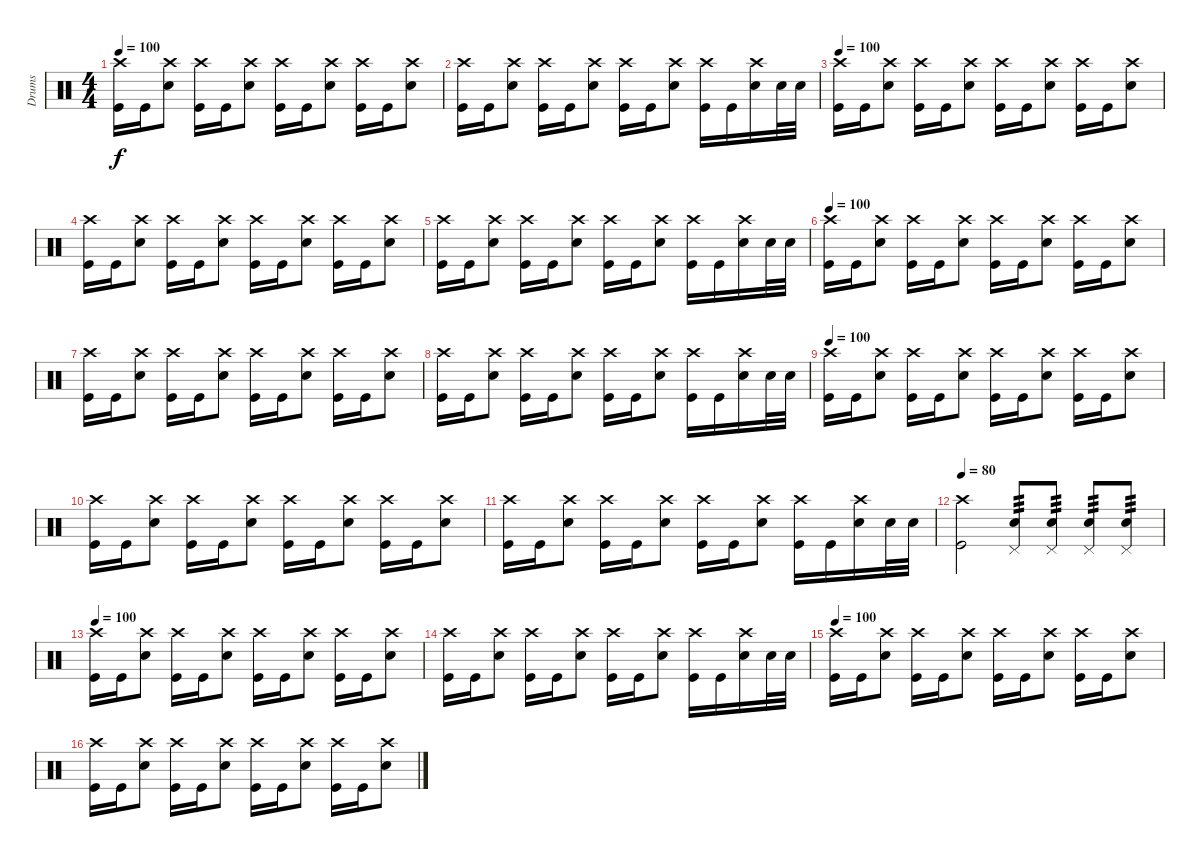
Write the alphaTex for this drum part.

\track ("Drums" "Drums") {instrument percussion}
\staff {score}
\articulation defaults
\ts (4 4)
\tempo 100
\clef neutral
\ks c
("Crash high (hit)" "Kick (hit)").16{dy f} "Kick (hit)".16 ("Crash high (hit)" "Snare (hit) 2").8 ("Crash high (hit)" "Kick (hit)").16 "Kick (hit)".16 ("Crash high (hit)" "Snare (hit) 2").8 ("Crash high (hit)" "Kick (hit)").16 "Kick (hit)".16 ("Crash high (hit)" "Snare (hit) 2").8 ("Crash high (hit)" "Kick (hit)").16 "Kick (hit)".16 ("Crash high (hit)" "Snare (hit) 2").8 |
("Crash high (hit)" "Kick (hit)").16 "Kick (hit)".16 ("Crash high (hit)" "Snare (hit) 2").8 ("Crash high (hit)" "Kick (hit)").16 "Kick (hit)".16 ("Crash high (hit)" "Snare (hit) 2").8 ("Crash high (hit)" "Kick (hit)").16 "Kick (hit)".16 ("Crash high (hit)" "Snare (hit) 2").8 ("Crash high (hit)" "Kick (hit)").16 "Kick (hit)".16 ("Crash high (hit)" "Snare (hit) 2").16 "Snare (hit) 2".32 "Snare (hit) 2".32 |
\tempo 100
("Crash high (hit)" "Kick (hit)").16 "Kick (hit)".16 ("Crash high (hit)" "Snare (hit) 2").8 ("Crash high (hit)" "Kick (hit)").16 "Kick (hit)".16 ("Crash high (hit)" "Snare (hit) 2").8 ("Crash high (hit)" "Kick (hit)").16 "Kick (hit)".16 ("Crash high (hit)" "Snare (hit) 2").8 ("Crash high (hit)" "Kick (hit)").16 "Kick (hit)".16 ("Crash high (hit)" "Snare (hit) 2").8 |
("Crash high (hit)" "Kick (hit)").16 "Kick (hit)".16 ("Crash high (hit)" "Snare (hit) 2").8 ("Crash high (hit)" "Kick (hit)").16 "Kick (hit)".16 ("Crash high (hit)" "Snare (hit) 2").8 ("Crash high (hit)" "Kick (hit)").16 "Kick (hit)".16 ("Crash high (hit)" "Snare (hit) 2").8 ("Crash high (hit)" "Kick (hit)").16 "Kick (hit)".16 ("Crash high (hit)" "Snare (hit) 2").8 |
("Crash high (hit)" "Kick (hit)").16 "Kick (hit)".16 ("Crash high (hit)" "Snare (hit) 2").8 ("Crash high (hit)" "Kick (hit)").16 "Kick (hit)".16 ("Crash high (hit)" "Snare (hit) 2").8 ("Crash high (hit)" "Kick (hit)").16 "Kick (hit)".16 ("Crash high (hit)" "Snare (hit) 2").8 ("Crash high (hit)" "Kick (hit)").16 "Kick (hit)".16 ("Crash high (hit)" "Snare (hit) 2").16 "Snare (hit) 2".32 "Snare (hit) 2".32 |
\tempo 100
("Crash high (hit)" "Kick (hit)").16 "Kick (hit)".16 ("Crash high (hit)" "Snare (hit) 2").8 ("Crash high (hit)" "Kick (hit)").16 "Kick (hit)".16 ("Crash high (hit)" "Snare (hit) 2").8 ("Crash high (hit)" "Kick (hit)").16 "Kick (hit)".16 ("Crash high (hit)" "Snare (hit) 2").8 ("Crash high (hit)" "Kick (hit)").16 "Kick (hit)".16 ("Crash high (hit)" "Snare (hit) 2").8 |
("Crash high (hit)" "Kick (hit)").16 "Kick (hit)".16 ("Crash high (hit)" "Snare (hit) 2").8 ("Crash high (hit)" "Kick (hit)").16 "Kick (hit)".16 ("Crash high (hit)" "Snare (hit) 2").8 ("Crash high (hit)" "Kick (hit)").16 "Kick (hit)".16 ("Crash high (hit)" "Snare (hit) 2").8 ("Crash high (hit)" "Kick (hit)").16 "Kick (hit)".16 ("Crash high (hit)" "Snare (hit) 2").8 |
("Crash high (hit)" "Kick (hit)").16 "Kick (hit)".16 ("Crash high (hit)" "Snare (hit) 2").8 ("Crash high (hit)" "Kick (hit)").16 "Kick (hit)".16 ("Crash high (hit)" "Snare (hit) 2").8 ("Crash high (hit)" "Kick (hit)").16 "Kick (hit)".16 ("Crash high (hit)" "Snare (hit) 2").8 ("Crash high (hit)" "Kick (hit)").16 "Kick (hit)".16 ("Crash high (hit)" "Snare (hit) 2").16 "Snare (hit) 2".32 "Snare (hit) 2".32 |
\tempo 100
("Crash high (hit)" "Kick (hit)").16 "Kick (hit)".16 ("Crash high (hit)" "Snare (hit) 2").8 ("Crash high (hit)" "Kick (hit)").16 "Kick (hit)".16 ("Crash high (hit)" "Snare (hit) 2").8 ("Crash high (hit)" "Kick (hit)").16 "Kick (hit)".16 ("Crash high (hit)" "Snare (hit) 2").8 ("Crash high (hit)" "Kick (hit)").16 "Kick (hit)".16 ("Crash high (hit)" "Snare (hit) 2").8 |
("Crash high (hit)" "Kick (hit)").16 "Kick (hit)".16 ("Crash high (hit)" "Snare (hit) 2").8 ("Crash high (hit)" "Kick (hit)").16 "Kick (hit)".16 ("Crash high (hit)" "Snare (hit) 2").8 ("Crash high (hit)" "Kick (hit)").16 "Kick (hit)".16 ("Crash high (hit)" "Snare (hit) 2").8 ("Crash high (hit)" "Kick (hit)").16 "Kick (hit)".16 ("Crash high (hit)" "Snare (hit) 2").8 |
("Crash high (hit)" "Kick (hit)").16 "Kick (hit)".16 ("Crash high (hit)" "Snare (hit) 2").8 ("Crash high (hit)" "Kick (hit)").16 "Kick (hit)".16 ("Crash high (hit)" "Snare (hit) 2").8 ("Crash high (hit)" "Kick (hit)").16 "Kick (hit)".16 ("Crash high (hit)" "Snare (hit) 2").8 ("Crash high (hit)" "Kick (hit)").16 "Kick (hit)".16 ("Crash high (hit)" "Snare (hit) 2").16 "Snare (hit) 2".32 "Snare (hit) 2".32 |
\tempo 80
("Crash high (hit)" "Kick (hit)").2 ("Pedal Hi-Hat (hit)" "Snare (hit) 2").8{tp 3} ("Pedal Hi-Hat (hit)" "Snare (hit) 2").8{tp 3} ("Pedal Hi-Hat (hit)" "Snare (hit) 2").8{tp 3} ("Pedal Hi-Hat (hit)" "Snare (hit) 2").8{tp 3} |
\tempo 100
("Crash high (hit)" "Kick (hit)").16 "Kick (hit)".16 ("Crash high (hit)" "Snare (hit) 2").8 ("Crash high (hit)" "Kick (hit)").16 "Kick (hit)".16 ("Crash high (hit)" "Snare (hit) 2").8 ("Crash high (hit)" "Kick (hit)").16 "Kick (hit)".16 ("Crash high (hit)" "Snare (hit) 2").8 ("Crash high (hit)" "Kick (hit)").16 "Kick (hit)".16 ("Crash high (hit)" "Snare (hit) 2").8 |
("Crash high (hit)" "Kick (hit)").16 "Kick (hit)".16 ("Crash high (hit)" "Snare (hit) 2").8 ("Crash high (hit)" "Kick (hit)").16 "Kick (hit)".16 ("Crash high (hit)" "Snare (hit) 2").8 ("Crash high (hit)" "Kick (hit)").16 "Kick (hit)".16 ("Crash high (hit)" "Snare (hit) 2").8 ("Crash high (hit)" "Kick (hit)").16 "Kick (hit)".16 ("Crash high (hit)" "Snare (hit) 2").16 "Snare (hit) 2".32 "Snare (hit) 2".32 |
\tempo 100
("Crash high (hit)" "Kick (hit)").16 "Kick (hit)".16 ("Crash high (hit)" "Snare (hit) 2").8 ("Crash high (hit)" "Kick (hit)").16 "Kick (hit)".16 ("Crash high (hit)" "Snare (hit) 2").8 ("Crash high (hit)" "Kick (hit)").16 "Kick (hit)".16 ("Crash high (hit)" "Snare (hit) 2").8 ("Crash high (hit)" "Kick (hit)").16 "Kick (hit)".16 ("Crash high (hit)" "Snare (hit) 2").8 |
("Crash high (hit)" "Kick (hit)").16 "Kick (hit)".16 ("Crash high (hit)" "Snare (hit) 2").8 ("Crash high (hit)" "Kick (hit)").16 "Kick (hit)".16 ("Crash high (hit)" "Snare (hit) 2").8 ("Crash high (hit)" "Kick (hit)").16 "Kick (hit)".16 ("Crash high (hit)" "Snare (hit) 2").8 ("Crash high (hit)" "Kick (hit)").16 "Kick (hit)".16 ("Crash high (hit)" "Snare (hit) 2").8
